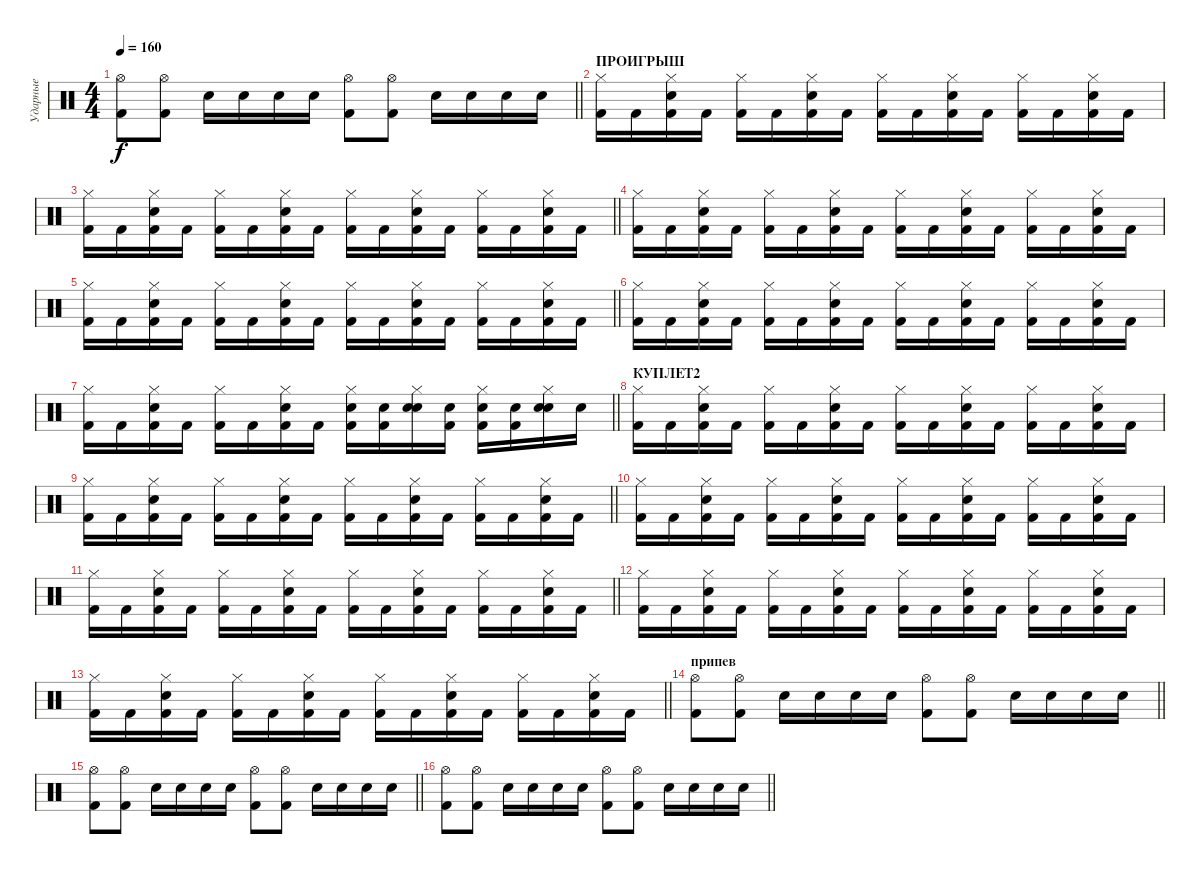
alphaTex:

\track ("Ударные" "Ударные") {instrument percussion}
\staff {score}
\articulation defaults
\ts (4 4)
\tempo 160
\clef neutral
\barLineRight lightlight
\ks c
("Kick (hit) 2" "Hi-Hat (open)").8{dy f} ("Kick (hit) 2" "Hi-Hat (open)").8 "Snare (hit) 2".16 "Snare (hit) 2".16 "Snare (hit) 2".16 "Snare (hit) 2".16 ("Kick (hit) 2" "Hi-Hat (open)").8 ("Kick (hit) 2" "Hi-Hat (open)").8 "Snare (hit) 2".16 "Snare (hit) 2".16 "Snare (hit) 2".16 "Snare (hit) 2".16 |
\section ("" "ПРОИГРЫШ")
("Hi-Hat (closed)" "Kick (hit) 2").16 "Kick (hit) 2".16 ("Hi-Hat (closed)" "Kick (hit) 2" "Electric Snare (hit)").16 "Kick (hit) 2".16 ("Hi-Hat (closed)" "Kick (hit) 2").16 "Kick (hit) 2".16 ("Hi-Hat (closed)" "Kick (hit) 2" "Electric Snare (hit)").16 "Kick (hit) 2".16 ("Hi-Hat (closed)" "Kick (hit) 2").16 "Kick (hit) 2".16 ("Hi-Hat (closed)" "Kick (hit) 2" "Electric Snare (hit)").16 "Kick (hit) 2".16 ("Hi-Hat (closed)" "Kick (hit) 2").16 "Kick (hit) 2".16 ("Hi-Hat (closed)" "Kick (hit) 2" "Electric Snare (hit)").16 "Kick (hit) 2".16 |
\barLineRight lightlight
("Hi-Hat (closed)" "Kick (hit) 2").16 "Kick (hit) 2".16 ("Hi-Hat (closed)" "Kick (hit) 2" "Electric Snare (hit)").16 "Kick (hit) 2".16 ("Hi-Hat (closed)" "Kick (hit) 2").16 "Kick (hit) 2".16 ("Hi-Hat (closed)" "Kick (hit) 2" "Electric Snare (hit)").16 "Kick (hit) 2".16 ("Hi-Hat (closed)" "Kick (hit) 2").16 "Kick (hit) 2".16 ("Hi-Hat (closed)" "Kick (hit) 2" "Electric Snare (hit)").16 "Kick (hit) 2".16 ("Hi-Hat (closed)" "Kick (hit) 2").16 "Kick (hit) 2".16 ("Hi-Hat (closed)" "Kick (hit) 2" "Electric Snare (hit)").16 "Kick (hit) 2".16 |
("Hi-Hat (closed)" "Kick (hit) 2").16 "Kick (hit) 2".16 ("Hi-Hat (closed)" "Kick (hit) 2" "Electric Snare (hit)").16 "Kick (hit) 2".16 ("Hi-Hat (closed)" "Kick (hit) 2").16 "Kick (hit) 2".16 ("Hi-Hat (closed)" "Kick (hit) 2" "Electric Snare (hit)").16 "Kick (hit) 2".16 ("Hi-Hat (closed)" "Kick (hit) 2").16 "Kick (hit) 2".16 ("Hi-Hat (closed)" "Kick (hit) 2" "Electric Snare (hit)").16 "Kick (hit) 2".16 ("Hi-Hat (closed)" "Kick (hit) 2").16 "Kick (hit) 2".16 ("Hi-Hat (closed)" "Kick (hit) 2" "Electric Snare (hit)").16 "Kick (hit) 2".16 |
\barLineRight lightlight
("Hi-Hat (closed)" "Kick (hit) 2").16 "Kick (hit) 2".16 ("Hi-Hat (closed)" "Kick (hit) 2" "Electric Snare (hit)").16 "Kick (hit) 2".16 ("Hi-Hat (closed)" "Kick (hit) 2").16 "Kick (hit) 2".16 ("Hi-Hat (closed)" "Kick (hit) 2" "Electric Snare (hit)").16 "Kick (hit) 2".16 ("Hi-Hat (closed)" "Kick (hit) 2").16 "Kick (hit) 2".16 ("Hi-Hat (closed)" "Kick (hit) 2" "Electric Snare (hit)").16 "Kick (hit) 2".16 ("Hi-Hat (closed)" "Kick (hit) 2").16 "Kick (hit) 2".16 ("Hi-Hat (closed)" "Kick (hit) 2" "Electric Snare (hit)").16 "Kick (hit) 2".16 |
("Hi-Hat (closed)" "Kick (hit) 2").16 "Kick (hit) 2".16 ("Hi-Hat (closed)" "Kick (hit) 2" "Electric Snare (hit)").16 "Kick (hit) 2".16 ("Hi-Hat (closed)" "Kick (hit) 2").16 "Kick (hit) 2".16 ("Hi-Hat (closed)" "Kick (hit) 2" "Electric Snare (hit)").16 "Kick (hit) 2".16 ("Hi-Hat (closed)" "Kick (hit) 2").16 "Kick (hit) 2".16 ("Hi-Hat (closed)" "Kick (hit) 2" "Electric Snare (hit)").16 "Kick (hit) 2".16 ("Hi-Hat (closed)" "Kick (hit) 2").16 "Kick (hit) 2".16 ("Hi-Hat (closed)" "Kick (hit) 2" "Electric Snare (hit)").16 "Kick (hit) 2".16 |
\barLineRight lightlight
("Hi-Hat (closed)" "Kick (hit) 2").16 "Kick (hit) 2".16 ("Hi-Hat (closed)" "Kick (hit) 2" "Electric Snare (hit)").16 "Kick (hit) 2".16 ("Hi-Hat (closed)" "Kick (hit) 2").16 "Kick (hit) 2".16 ("Hi-Hat (closed)" "Kick (hit) 2" "Electric Snare (hit)").16 "Kick (hit) 2".16 ("Hi-Hat (closed)" "Snare (hit) 2" "Kick (hit) 2").16 ("Snare (hit) 2" "Kick (hit) 2").16 ("Hi-Hat (closed)" "Snare (hit) 2" "Electric Snare (hit)").16 ("Snare (hit) 2" "Kick (hit) 2").16 ("Hi-Hat (closed)" "Snare (hit) 2" "Kick (hit) 2").16 ("Snare (hit) 2" "Kick (hit) 2").16 ("Hi-Hat (closed)" "Snare (hit) 2" "Electric Snare (hit)").16 "Snare (hit) 2".16 |
\section ("" "КУПЛЕТ2")
("Hi-Hat (closed)" "Kick (hit) 2").16 "Kick (hit) 2".16 ("Hi-Hat (closed)" "Kick (hit) 2" "Electric Snare (hit)").16 "Kick (hit) 2".16 ("Hi-Hat (closed)" "Kick (hit) 2").16 "Kick (hit) 2".16 ("Hi-Hat (closed)" "Kick (hit) 2" "Electric Snare (hit)").16 "Kick (hit) 2".16 ("Hi-Hat (closed)" "Kick (hit) 2").16 "Kick (hit) 2".16 ("Hi-Hat (closed)" "Kick (hit) 2" "Electric Snare (hit)").16 "Kick (hit) 2".16 ("Hi-Hat (closed)" "Kick (hit) 2").16 "Kick (hit) 2".16 ("Hi-Hat (closed)" "Kick (hit) 2" "Electric Snare (hit)").16 "Kick (hit) 2".16 |
\barLineRight lightlight
("Hi-Hat (closed)" "Kick (hit) 2").16 "Kick (hit) 2".16 ("Hi-Hat (closed)" "Kick (hit) 2" "Electric Snare (hit)").16 "Kick (hit) 2".16 ("Hi-Hat (closed)" "Kick (hit) 2").16 "Kick (hit) 2".16 ("Hi-Hat (closed)" "Kick (hit) 2" "Electric Snare (hit)").16 "Kick (hit) 2".16 ("Hi-Hat (closed)" "Kick (hit) 2").16 "Kick (hit) 2".16 ("Hi-Hat (closed)" "Kick (hit) 2" "Electric Snare (hit)").16 "Kick (hit) 2".16 ("Hi-Hat (closed)" "Kick (hit) 2").16 "Kick (hit) 2".16 ("Hi-Hat (closed)" "Kick (hit) 2" "Electric Snare (hit)").16 "Kick (hit) 2".16 |
("Hi-Hat (closed)" "Kick (hit) 2").16 "Kick (hit) 2".16 ("Hi-Hat (closed)" "Kick (hit) 2" "Electric Snare (hit)").16 "Kick (hit) 2".16 ("Hi-Hat (closed)" "Kick (hit) 2").16 "Kick (hit) 2".16 ("Hi-Hat (closed)" "Kick (hit) 2" "Electric Snare (hit)").16 "Kick (hit) 2".16 ("Hi-Hat (closed)" "Kick (hit) 2").16 "Kick (hit) 2".16 ("Hi-Hat (closed)" "Kick (hit) 2" "Electric Snare (hit)").16 "Kick (hit) 2".16 ("Hi-Hat (closed)" "Kick (hit) 2").16 "Kick (hit) 2".16 ("Hi-Hat (closed)" "Kick (hit) 2" "Electric Snare (hit)").16 "Kick (hit) 2".16 |
\barLineRight lightlight
("Hi-Hat (closed)" "Kick (hit) 2").16 "Kick (hit) 2".16 ("Hi-Hat (closed)" "Kick (hit) 2" "Electric Snare (hit)").16 "Kick (hit) 2".16 ("Hi-Hat (closed)" "Kick (hit) 2").16 "Kick (hit) 2".16 ("Hi-Hat (closed)" "Kick (hit) 2" "Electric Snare (hit)").16 "Kick (hit) 2".16 ("Hi-Hat (closed)" "Kick (hit) 2").16 "Kick (hit) 2".16 ("Hi-Hat (closed)" "Kick (hit) 2" "Electric Snare (hit)").16 "Kick (hit) 2".16 ("Hi-Hat (closed)" "Kick (hit) 2").16 "Kick (hit) 2".16 ("Hi-Hat (closed)" "Kick (hit) 2" "Electric Snare (hit)").16 "Kick (hit) 2".16 |
("Hi-Hat (closed)" "Kick (hit) 2").16 "Kick (hit) 2".16 ("Hi-Hat (closed)" "Kick (hit) 2" "Electric Snare (hit)").16 "Kick (hit) 2".16 ("Hi-Hat (closed)" "Kick (hit) 2").16 "Kick (hit) 2".16 ("Hi-Hat (closed)" "Kick (hit) 2" "Electric Snare (hit)").16 "Kick (hit) 2".16 ("Hi-Hat (closed)" "Kick (hit) 2").16 "Kick (hit) 2".16 ("Hi-Hat (closed)" "Kick (hit) 2" "Electric Snare (hit)").16 "Kick (hit) 2".16 ("Hi-Hat (closed)" "Kick (hit) 2").16 "Kick (hit) 2".16 ("Hi-Hat (closed)" "Kick (hit) 2" "Electric Snare (hit)").16 "Kick (hit) 2".16 |
\barLineRight lightlight
("Hi-Hat (closed)" "Kick (hit) 2").16 "Kick (hit) 2".16 ("Hi-Hat (closed)" "Kick (hit) 2" "Electric Snare (hit)").16 "Kick (hit) 2".16 ("Hi-Hat (closed)" "Kick (hit) 2").16 "Kick (hit) 2".16 ("Hi-Hat (closed)" "Kick (hit) 2" "Electric Snare (hit)").16 "Kick (hit) 2".16 ("Hi-Hat (closed)" "Kick (hit) 2").16 "Kick (hit) 2".16 ("Hi-Hat (closed)" "Kick (hit) 2" "Electric Snare (hit)").16 "Kick (hit) 2".16 ("Hi-Hat (closed)" "Kick (hit) 2").16 "Kick (hit) 2".16 ("Hi-Hat (closed)" "Kick (hit) 2" "Electric Snare (hit)").16 "Kick (hit) 2".16 |
\section ("" "припев")
\barLineRight lightlight
("Kick (hit) 2" "Hi-Hat (open)").8 ("Kick (hit) 2" "Hi-Hat (open)").8 "Snare (hit) 2".16 "Snare (hit) 2".16 "Snare (hit) 2".16 "Snare (hit) 2".16 ("Kick (hit) 2" "Hi-Hat (open)").8 ("Kick (hit) 2" "Hi-Hat (open)").8 "Snare (hit) 2".16 "Snare (hit) 2".16 "Snare (hit) 2".16 "Snare (hit) 2".16 |
\barLineRight lightlight
("Kick (hit) 2" "Hi-Hat (open)").8 ("Kick (hit) 2" "Hi-Hat (open)").8 "Snare (hit) 2".16 "Snare (hit) 2".16 "Snare (hit) 2".16 "Snare (hit) 2".16 ("Kick (hit) 2" "Hi-Hat (open)").8 ("Kick (hit) 2" "Hi-Hat (open)").8 "Snare (hit) 2".16 "Snare (hit) 2".16 "Snare (hit) 2".16 "Snare (hit) 2".16 |
\barLineRight lightlight
("Kick (hit) 2" "Hi-Hat (open)").8 ("Kick (hit) 2" "Hi-Hat (open)").8 "Snare (hit) 2".16 "Snare (hit) 2".16 "Snare (hit) 2".16 "Snare (hit) 2".16 ("Kick (hit) 2" "Hi-Hat (open)").8 ("Kick (hit) 2" "Hi-Hat (open)").8 "Snare (hit) 2".16 "Snare (hit) 2".16 "Snare (hit) 2".16 "Snare (hit) 2".16
